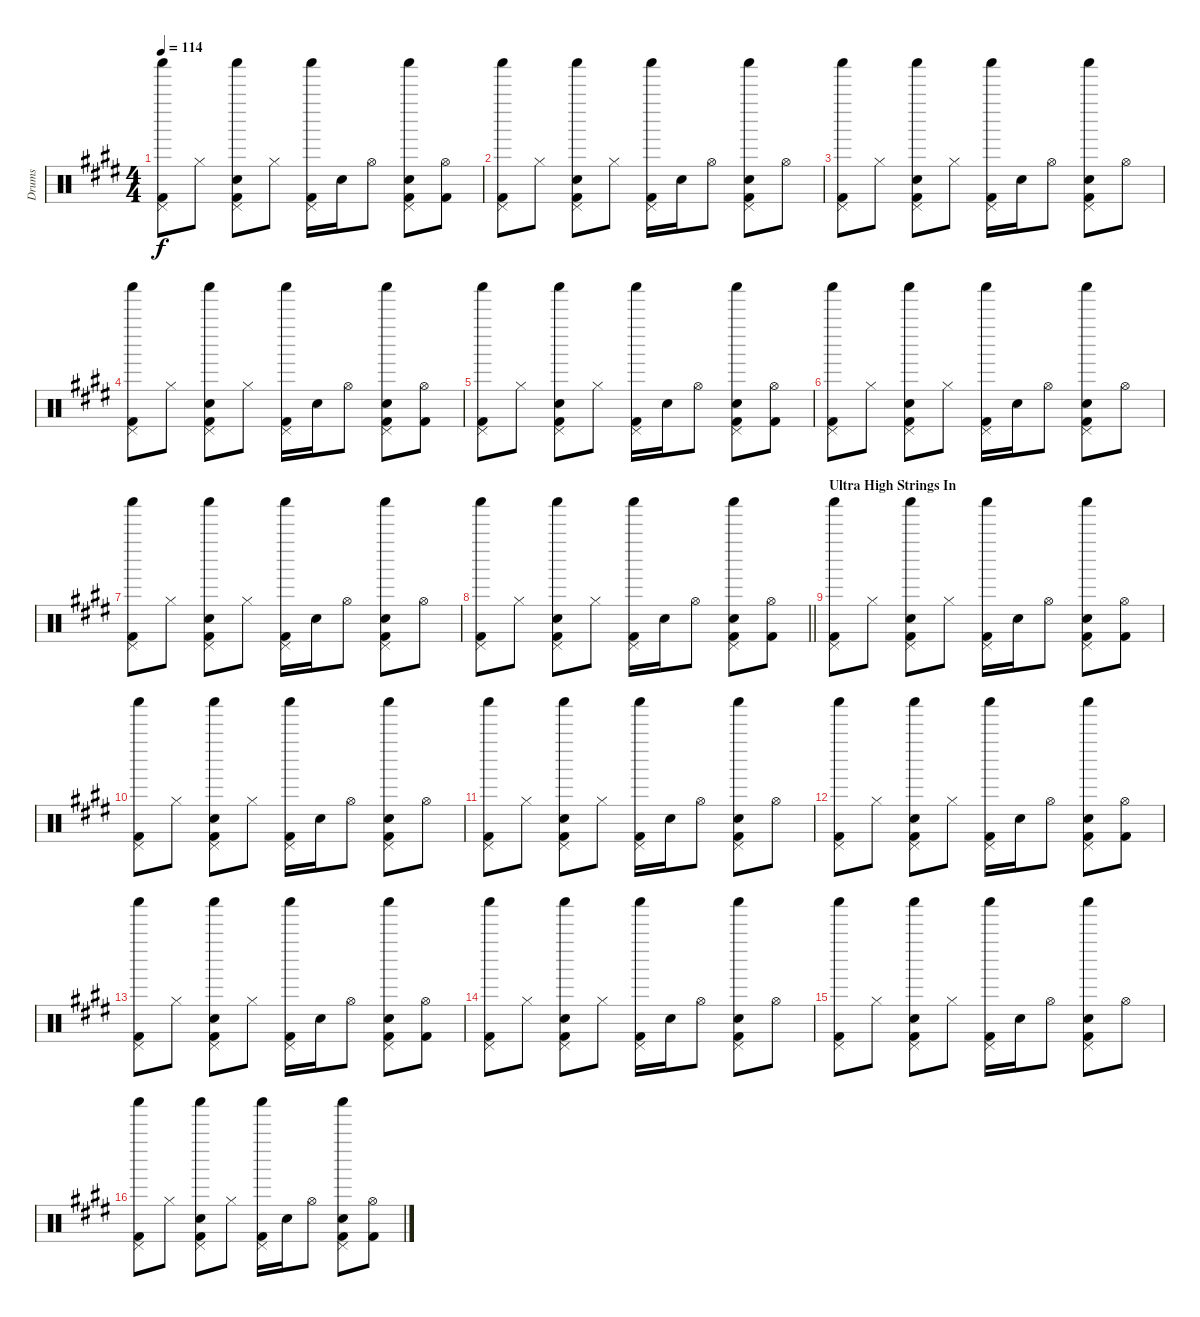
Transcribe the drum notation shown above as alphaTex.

\track ("Drums" "Drums") {instrument percussion}
\staff {score}
\articulation defaults
\ts (4 4)
\tempo 114
\clef neutral
\ks e
("Pedal Hi-Hat (hit)" "Shaker (hit)" "Kick (hit) 2").8{dy f} "Hi-Hat (closed)".8 ("Pedal Hi-Hat (hit)" "Shaker (hit)" "Electric Snare (hit)" "Kick (hit) 2").8 "Hi-Hat (closed)".8 ("Pedal Hi-Hat (hit)" "Shaker (hit)" "Kick (hit) 2").16 "Electric Snare (hit)".16 "Hi-Hat (open)".8 ("Pedal Hi-Hat (hit)" "Shaker (hit)" "Electric Snare (hit)" "Kick (hit) 2").8 ("Hi-Hat (open)" "Kick (hit) 2").8 |
("Pedal Hi-Hat (hit)" "Shaker (hit)" "Kick (hit) 2").8 "Hi-Hat (closed)".8 ("Pedal Hi-Hat (hit)" "Shaker (hit)" "Electric Snare (hit)" "Kick (hit) 2").8 "Hi-Hat (closed)".8 ("Pedal Hi-Hat (hit)" "Shaker (hit)" "Kick (hit) 2").16 "Electric Snare (hit)".16 "Hi-Hat (open)".8 ("Pedal Hi-Hat (hit)" "Shaker (hit)" "Electric Snare (hit)" "Kick (hit) 2").8 "Hi-Hat (open)".8 |
("Pedal Hi-Hat (hit)" "Shaker (hit)" "Kick (hit) 2").8 "Hi-Hat (closed)".8 ("Pedal Hi-Hat (hit)" "Shaker (hit)" "Electric Snare (hit)" "Kick (hit) 2").8 "Hi-Hat (closed)".8 ("Pedal Hi-Hat (hit)" "Shaker (hit)" "Kick (hit) 2").16 "Electric Snare (hit)".16 "Hi-Hat (open)".8 ("Pedal Hi-Hat (hit)" "Shaker (hit)" "Electric Snare (hit)" "Kick (hit) 2").8 "Hi-Hat (open)".8 |
("Pedal Hi-Hat (hit)" "Shaker (hit)" "Kick (hit) 2").8 "Hi-Hat (closed)".8 ("Pedal Hi-Hat (hit)" "Shaker (hit)" "Electric Snare (hit)" "Kick (hit) 2").8 "Hi-Hat (closed)".8 ("Pedal Hi-Hat (hit)" "Shaker (hit)" "Kick (hit) 2").16 "Electric Snare (hit)".16 "Hi-Hat (open)".8 ("Pedal Hi-Hat (hit)" "Shaker (hit)" "Electric Snare (hit)" "Kick (hit) 2").8 ("Hi-Hat (open)" "Kick (hit) 2").8 |
("Pedal Hi-Hat (hit)" "Shaker (hit)" "Kick (hit) 2").8 "Hi-Hat (closed)".8 ("Pedal Hi-Hat (hit)" "Shaker (hit)" "Electric Snare (hit)" "Kick (hit) 2").8 "Hi-Hat (closed)".8 ("Pedal Hi-Hat (hit)" "Shaker (hit)" "Kick (hit) 2").16 "Electric Snare (hit)".16 "Hi-Hat (open)".8 ("Pedal Hi-Hat (hit)" "Shaker (hit)" "Electric Snare (hit)" "Kick (hit) 2").8 ("Hi-Hat (open)" "Kick (hit) 2").8 |
("Pedal Hi-Hat (hit)" "Shaker (hit)" "Kick (hit) 2").8 "Hi-Hat (closed)".8 ("Pedal Hi-Hat (hit)" "Shaker (hit)" "Electric Snare (hit)" "Kick (hit) 2").8 "Hi-Hat (closed)".8 ("Pedal Hi-Hat (hit)" "Shaker (hit)" "Kick (hit) 2").16 "Electric Snare (hit)".16 "Hi-Hat (open)".8 ("Pedal Hi-Hat (hit)" "Shaker (hit)" "Electric Snare (hit)" "Kick (hit) 2").8 "Hi-Hat (open)".8 |
("Pedal Hi-Hat (hit)" "Shaker (hit)" "Kick (hit) 2").8 "Hi-Hat (closed)".8 ("Pedal Hi-Hat (hit)" "Shaker (hit)" "Electric Snare (hit)" "Kick (hit) 2").8 "Hi-Hat (closed)".8 ("Pedal Hi-Hat (hit)" "Shaker (hit)" "Kick (hit) 2").16 "Electric Snare (hit)".16 "Hi-Hat (open)".8 ("Pedal Hi-Hat (hit)" "Shaker (hit)" "Electric Snare (hit)" "Kick (hit) 2").8 "Hi-Hat (open)".8 |
\barLineRight lightlight
("Pedal Hi-Hat (hit)" "Shaker (hit)" "Kick (hit) 2").8 "Hi-Hat (closed)".8 ("Pedal Hi-Hat (hit)" "Shaker (hit)" "Electric Snare (hit)" "Kick (hit) 2").8 "Hi-Hat (closed)".8 ("Pedal Hi-Hat (hit)" "Shaker (hit)" "Kick (hit) 2").16 "Electric Snare (hit)".16 "Hi-Hat (open)".8 ("Pedal Hi-Hat (hit)" "Shaker (hit)" "Electric Snare (hit)" "Kick (hit) 2").8 ("Hi-Hat (open)" "Kick (hit) 2").8 |
\section ("" "Ultra High Strings In")
("Pedal Hi-Hat (hit)" "Shaker (hit)" "Kick (hit) 2").8 "Hi-Hat (closed)".8 ("Pedal Hi-Hat (hit)" "Shaker (hit)" "Electric Snare (hit)" "Kick (hit) 2").8 "Hi-Hat (closed)".8 ("Pedal Hi-Hat (hit)" "Shaker (hit)" "Kick (hit) 2").16 "Electric Snare (hit)".16 "Hi-Hat (open)".8 ("Pedal Hi-Hat (hit)" "Shaker (hit)" "Electric Snare (hit)" "Kick (hit) 2").8 ("Hi-Hat (open)" "Kick (hit) 2").8 |
("Pedal Hi-Hat (hit)" "Shaker (hit)" "Kick (hit) 2").8 "Hi-Hat (closed)".8 ("Pedal Hi-Hat (hit)" "Shaker (hit)" "Electric Snare (hit)" "Kick (hit) 2").8 "Hi-Hat (closed)".8 ("Pedal Hi-Hat (hit)" "Shaker (hit)" "Kick (hit) 2").16 "Electric Snare (hit)".16 "Hi-Hat (open)".8 ("Pedal Hi-Hat (hit)" "Shaker (hit)" "Electric Snare (hit)" "Kick (hit) 2").8 "Hi-Hat (open)".8 |
("Pedal Hi-Hat (hit)" "Shaker (hit)" "Kick (hit) 2").8 "Hi-Hat (closed)".8 ("Pedal Hi-Hat (hit)" "Shaker (hit)" "Electric Snare (hit)" "Kick (hit) 2").8 "Hi-Hat (closed)".8 ("Pedal Hi-Hat (hit)" "Shaker (hit)" "Kick (hit) 2").16 "Electric Snare (hit)".16 "Hi-Hat (open)".8 ("Pedal Hi-Hat (hit)" "Shaker (hit)" "Electric Snare (hit)" "Kick (hit) 2").8 "Hi-Hat (open)".8 |
("Pedal Hi-Hat (hit)" "Shaker (hit)" "Kick (hit) 2").8 "Hi-Hat (closed)".8 ("Pedal Hi-Hat (hit)" "Shaker (hit)" "Electric Snare (hit)" "Kick (hit) 2").8 "Hi-Hat (closed)".8 ("Pedal Hi-Hat (hit)" "Shaker (hit)" "Kick (hit) 2").16 "Electric Snare (hit)".16 "Hi-Hat (open)".8 ("Pedal Hi-Hat (hit)" "Shaker (hit)" "Electric Snare (hit)" "Kick (hit) 2").8 ("Hi-Hat (open)" "Kick (hit) 2").8 |
("Pedal Hi-Hat (hit)" "Shaker (hit)" "Kick (hit) 2").8 "Hi-Hat (closed)".8 ("Pedal Hi-Hat (hit)" "Shaker (hit)" "Electric Snare (hit)" "Kick (hit) 2").8 "Hi-Hat (closed)".8 ("Pedal Hi-Hat (hit)" "Shaker (hit)" "Kick (hit) 2").16 "Electric Snare (hit)".16 "Hi-Hat (open)".8 ("Pedal Hi-Hat (hit)" "Shaker (hit)" "Electric Snare (hit)" "Kick (hit) 2").8 ("Hi-Hat (open)" "Kick (hit) 2").8 |
("Pedal Hi-Hat (hit)" "Shaker (hit)" "Kick (hit) 2").8 "Hi-Hat (closed)".8 ("Pedal Hi-Hat (hit)" "Shaker (hit)" "Electric Snare (hit)" "Kick (hit) 2").8 "Hi-Hat (closed)".8 ("Pedal Hi-Hat (hit)" "Shaker (hit)" "Kick (hit) 2").16 "Electric Snare (hit)".16 "Hi-Hat (open)".8 ("Pedal Hi-Hat (hit)" "Shaker (hit)" "Electric Snare (hit)" "Kick (hit) 2").8 "Hi-Hat (open)".8 |
("Pedal Hi-Hat (hit)" "Shaker (hit)" "Kick (hit) 2").8 "Hi-Hat (closed)".8 ("Pedal Hi-Hat (hit)" "Shaker (hit)" "Electric Snare (hit)" "Kick (hit) 2").8 "Hi-Hat (closed)".8 ("Pedal Hi-Hat (hit)" "Shaker (hit)" "Kick (hit) 2").16 "Electric Snare (hit)".16 "Hi-Hat (open)".8 ("Pedal Hi-Hat (hit)" "Shaker (hit)" "Electric Snare (hit)" "Kick (hit) 2").8 "Hi-Hat (open)".8 |
("Pedal Hi-Hat (hit)" "Shaker (hit)" "Kick (hit) 2").8 "Hi-Hat (closed)".8 ("Pedal Hi-Hat (hit)" "Shaker (hit)" "Electric Snare (hit)" "Kick (hit) 2").8 "Hi-Hat (closed)".8 ("Pedal Hi-Hat (hit)" "Shaker (hit)" "Kick (hit) 2").16 "Electric Snare (hit)".16 "Hi-Hat (open)".8 ("Pedal Hi-Hat (hit)" "Shaker (hit)" "Electric Snare (hit)" "Kick (hit) 2").8 ("Hi-Hat (open)" "Kick (hit) 2").8
